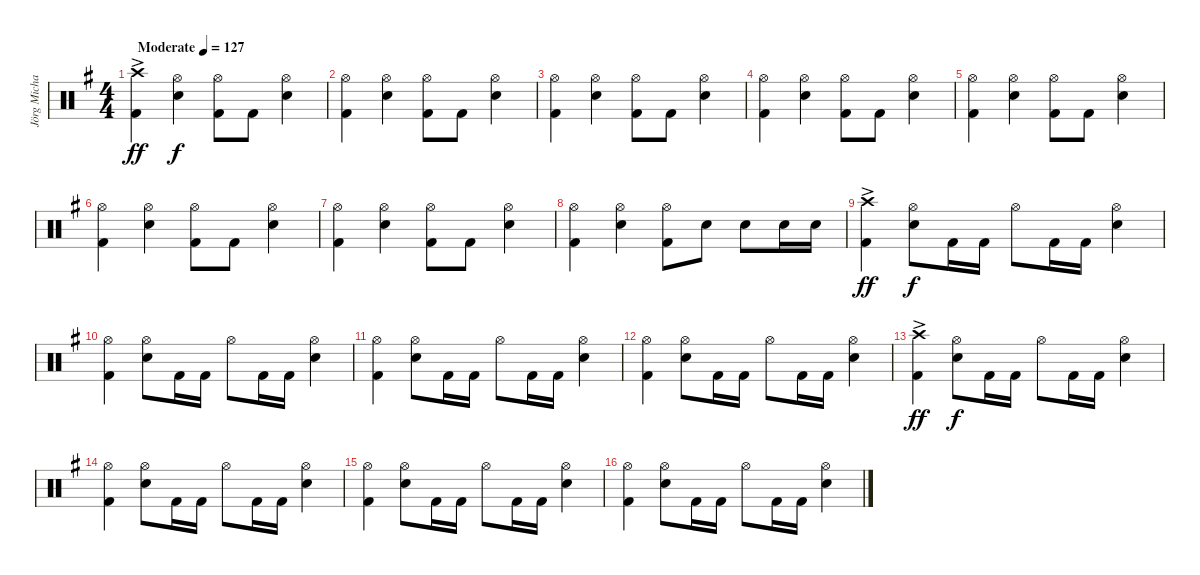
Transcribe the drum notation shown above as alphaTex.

\track ("Jörg Michael" "Jörg Micha") {instrument percussion}
\staff {score}
\articulation defaults
\ts (4 4)
\tempo (127 "Moderate")
\clef neutral
\ks g
("Crash high (hit)"{ac} "Kick (hit) 2"{ac}).4{dy ff} ("Hi-Hat (open)" "Electric Snare (hit)").4{dy f} ("Hi-Hat (open)" "Kick (hit) 2").8 "Kick (hit) 2".8 ("Hi-Hat (open)" "Electric Snare (hit)").4 |
("Hi-Hat (open)" "Kick (hit) 2").4 ("Hi-Hat (open)" "Electric Snare (hit)").4 ("Hi-Hat (open)" "Kick (hit) 2").8 "Kick (hit) 2".8 ("Hi-Hat (open)" "Electric Snare (hit)").4 |
("Hi-Hat (open)" "Kick (hit) 2").4 ("Hi-Hat (open)" "Electric Snare (hit)").4 ("Hi-Hat (open)" "Kick (hit) 2").8 "Kick (hit) 2".8 ("Hi-Hat (open)" "Electric Snare (hit)").4 |
("Hi-Hat (open)" "Kick (hit) 2").4 ("Hi-Hat (open)" "Electric Snare (hit)").4 ("Hi-Hat (open)" "Kick (hit) 2").8 "Kick (hit) 2".8 ("Hi-Hat (open)" "Electric Snare (hit)").4 |
("Hi-Hat (open)" "Kick (hit) 2").4 ("Hi-Hat (open)" "Electric Snare (hit)").4 ("Hi-Hat (open)" "Kick (hit) 2").8 "Kick (hit) 2".8 ("Hi-Hat (open)" "Electric Snare (hit)").4 |
("Hi-Hat (open)" "Kick (hit) 2").4 ("Hi-Hat (open)" "Electric Snare (hit)").4 ("Hi-Hat (open)" "Kick (hit) 2").8 "Kick (hit) 2".8 ("Hi-Hat (open)" "Electric Snare (hit)").4 |
("Hi-Hat (open)" "Kick (hit) 2").4 ("Hi-Hat (open)" "Electric Snare (hit)").4 ("Hi-Hat (open)" "Kick (hit) 2").8 "Kick (hit) 2".8 ("Hi-Hat (open)" "Electric Snare (hit)").4 |
("Hi-Hat (open)" "Kick (hit) 2").4 ("Hi-Hat (open)" "Electric Snare (hit)").4 ("Hi-Hat (open)" "Kick (hit) 2").8 "Electric Snare (hit)".8 "Electric Snare (hit)".8 "Electric Snare (hit)".16 "Electric Snare (hit)".16 |
("Crash high (hit)"{ac} "Kick (hit) 2"{ac}).4{dy ff} ("Hi-Hat (open)" "Electric Snare (hit)").8{dy f} "Kick (hit) 2".16 "Kick (hit) 2".16 "Hi-Hat (open)".8 "Kick (hit) 2".16 "Kick (hit) 2".16 ("Hi-Hat (open)" "Electric Snare (hit)").4 |
("Hi-Hat (open)" "Kick (hit) 2").4 ("Hi-Hat (open)" "Electric Snare (hit)").8 "Kick (hit) 2".16 "Kick (hit) 2".16 "Hi-Hat (open)".8 "Kick (hit) 2".16 "Kick (hit) 2".16 ("Hi-Hat (open)" "Electric Snare (hit)").4 |
("Hi-Hat (open)" "Kick (hit) 2").4 ("Hi-Hat (open)" "Electric Snare (hit)").8 "Kick (hit) 2".16 "Kick (hit) 2".16 "Hi-Hat (open)".8 "Kick (hit) 2".16 "Kick (hit) 2".16 ("Hi-Hat (open)" "Electric Snare (hit)").4 |
("Hi-Hat (open)" "Kick (hit) 2").4 ("Hi-Hat (open)" "Electric Snare (hit)").8 "Kick (hit) 2".16 "Kick (hit) 2".16 "Hi-Hat (open)".8 "Kick (hit) 2".16 "Kick (hit) 2".16 ("Hi-Hat (open)" "Electric Snare (hit)").4 |
("Crash high (hit)"{ac} "Kick (hit) 2"{ac}).4{dy ff} ("Hi-Hat (open)" "Electric Snare (hit)").8{dy f} "Kick (hit) 2".16 "Kick (hit) 2".16 "Hi-Hat (open)".8 "Kick (hit) 2".16 "Kick (hit) 2".16 ("Hi-Hat (open)" "Electric Snare (hit)").4 |
("Hi-Hat (open)" "Kick (hit) 2").4 ("Hi-Hat (open)" "Electric Snare (hit)").8 "Kick (hit) 2".16 "Kick (hit) 2".16 "Hi-Hat (open)".8 "Kick (hit) 2".16 "Kick (hit) 2".16 ("Hi-Hat (open)" "Electric Snare (hit)").4 |
("Hi-Hat (open)" "Kick (hit) 2").4 ("Hi-Hat (open)" "Electric Snare (hit)").8 "Kick (hit) 2".16 "Kick (hit) 2".16 "Hi-Hat (open)".8 "Kick (hit) 2".16 "Kick (hit) 2".16 ("Hi-Hat (open)" "Electric Snare (hit)").4 |
("Hi-Hat (open)" "Kick (hit) 2").4 ("Hi-Hat (open)" "Electric Snare (hit)").8 "Kick (hit) 2".16 "Kick (hit) 2".16 "Hi-Hat (open)".8 "Kick (hit) 2".16 "Kick (hit) 2".16 ("Hi-Hat (open)" "Electric Snare (hit)").4
